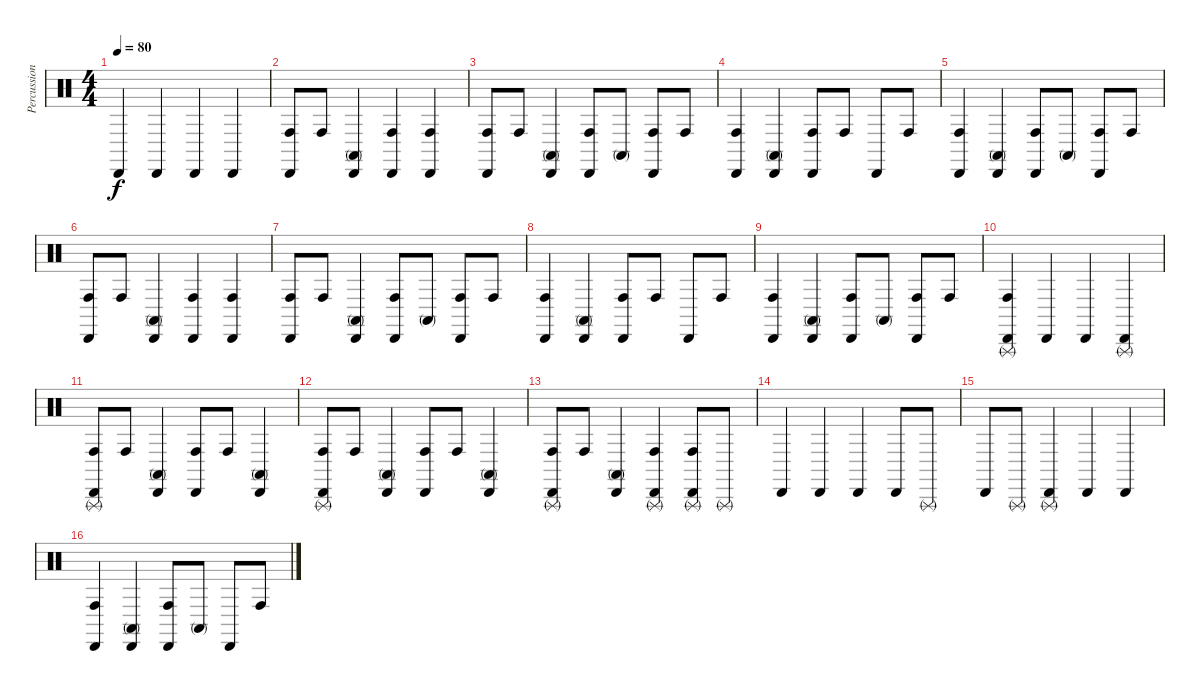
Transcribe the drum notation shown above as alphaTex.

\track ("Percussions" "Percussion") {instrument percussion}
\staff {score}
\articulation defaults
\ts (4 4)
\tempo 80
\clef neutral
\ks c "Cabasa (hit)".4{dy f} "Cabasa (hit)".4 "Cabasa (hit)".4 "Cabasa (hit)".4
|
("Cabasa (hit)" "Conga high (hit)").8 "Conga high (hit)".8 ("Cabasa (hit)" "Conga high (mute)").4 ("Cabasa (hit)" "Conga high (hit)").4 ("Cabasa (hit)" "Conga high (hit)").4 |
("Cabasa (hit)" "Conga high (hit)").8 "Conga high (hit)".8 ("Cabasa (hit)" "Conga high (mute)").4 ("Cabasa (hit)" "Conga high (hit)").8 "Conga high (mute)".8 ("Cabasa (hit)" "Conga high (hit)").8 "Conga high (hit)".8 |
("Cabasa (hit)" "Conga high (hit)").4 ("Cabasa (hit)" "Conga high (mute)").4 ("Cabasa (hit)" "Conga high (hit)").8 "Conga high (hit)".8 "Cabasa (hit)".8 "Conga high (hit)".8 |
("Cabasa (hit)" "Conga high (hit)").4 ("Cabasa (hit)" "Conga high (mute)").4 ("Cabasa (hit)" "Conga high (hit)").8 "Conga high (mute)".8 ("Cabasa (hit)" "Conga high (hit)").8 "Conga high (hit)".8 |
("Cabasa (hit)" "Conga high (hit)").8 "Conga high (hit)".8 ("Cabasa (hit)" "Conga high (mute)").4 ("Cabasa (hit)" "Conga high (hit)").4 ("Cabasa (hit)" "Conga high (hit)").4 |
("Cabasa (hit)" "Conga high (hit)").8 "Conga high (hit)".8 ("Cabasa (hit)" "Conga high (mute)").4 ("Cabasa (hit)" "Conga high (hit)").8 "Conga high (mute)".8 ("Cabasa (hit)" "Conga high (hit)").8 "Conga high (hit)".8 |
("Cabasa (hit)" "Conga high (hit)").4 ("Cabasa (hit)" "Conga high (mute)").4 ("Cabasa (hit)" "Conga high (hit)").8 "Conga high (hit)".8 "Cabasa (hit)".8 "Conga high (hit)".8 |
("Cabasa (hit)" "Conga high (hit)").4 ("Cabasa (hit)" "Conga high (mute)").4 ("Cabasa (hit)" "Conga high (hit)").8 "Conga high (mute)".8 ("Cabasa (hit)" "Conga high (hit)").8 "Conga high (hit)".8 |
("Cabasa (hit)" "Triangle (rnute)" "Conga high (hit)").4 "Cabasa (hit)".4 "Cabasa (hit)".4 ("Cabasa (hit)" "Triangle (rnute)").4 |
("Cabasa (hit)" "Triangle (rnute)" "Conga high (hit)").8 "Conga high (hit)".8 ("Cabasa (hit)" "Conga high (mute)").4 ("Cabasa (hit)" "Conga high (hit)").8 "Conga high (hit)".8 ("Cabasa (hit)" "Conga high (mute)").4 |
("Cabasa (hit)" "Triangle (rnute)" "Conga high (hit)").8 "Conga high (hit)".8 ("Cabasa (hit)" "Conga high (mute)").4 ("Cabasa (hit)" "Conga high (hit)").8 "Conga high (hit)".8 ("Cabasa (hit)" "Conga high (mute)").4 |
("Cabasa (hit)" "Triangle (rnute)" "Conga high (hit)").8 "Conga high (hit)".8 ("Cabasa (hit)" "Conga high (mute)").4 ("Cabasa (hit)" "Triangle (rnute)" "Conga high (hit)").4 ("Cabasa (hit)" "Triangle (rnute)" "Conga high (hit)").8 "Triangle (rnute)".8 |
"Cabasa (hit)".4 "Cabasa (hit)".4 "Cabasa (hit)".4 "Cabasa (hit)".8 "Triangle (rnute)".8 |
"Cabasa (hit)".8 "Triangle (rnute)".8 ("Cabasa (hit)" "Triangle (rnute)").4 "Cabasa (hit)".4 "Cabasa (hit)".4 |
("Cabasa (hit)" "Conga high (hit)").4 ("Cabasa (hit)" "Conga high (mute)").4 ("Cabasa (hit)" "Conga high (hit)").8 "Conga high (mute)".8 "Cabasa (hit)".8 "Conga high (hit)".8
